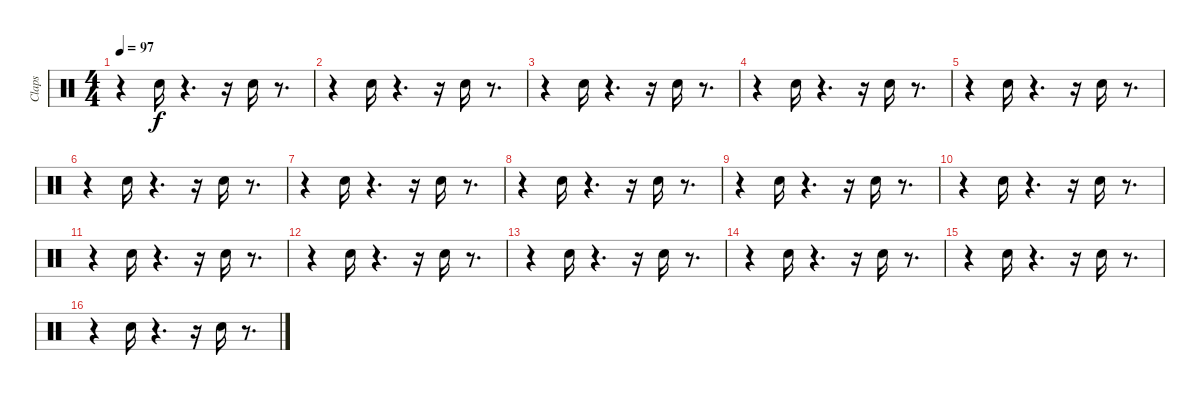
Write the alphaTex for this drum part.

\track ("Claps" "Claps") {instrument percussion}
\staff {score}
\articulation defaults
\ts (4 4)
\tempo 97
\clef neutral
\ks c
r.4{dy f} "Hand Clap (hit)".16 r.4{d} r.16 "Hand Clap (hit)".16 r.8{d} |
r.4 "Hand Clap (hit)".16 r.4{d} r.16 "Hand Clap (hit)".16 r.8{d} |
r.4 "Hand Clap (hit)".16 r.4{d} r.16 "Hand Clap (hit)".16 r.8{d} |
r.4 "Hand Clap (hit)".16 r.4{d} r.16 "Hand Clap (hit)".16 r.8{d} |
r.4 "Hand Clap (hit)".16 r.4{d} r.16 "Hand Clap (hit)".16 r.8{d} |
r.4 "Hand Clap (hit)".16 r.4{d} r.16 "Hand Clap (hit)".16 r.8{d} |
r.4 "Hand Clap (hit)".16 r.4{d} r.16 "Hand Clap (hit)".16 r.8{d} |
r.4 "Hand Clap (hit)".16 r.4{d} r.16 "Hand Clap (hit)".16 r.8{d} |
r.4 "Hand Clap (hit)".16 r.4{d} r.16 "Hand Clap (hit)".16 r.8{d} |
r.4 "Hand Clap (hit)".16 r.4{d} r.16 "Hand Clap (hit)".16 r.8{d} |
r.4 "Hand Clap (hit)".16 r.4{d} r.16 "Hand Clap (hit)".16 r.8{d} |
r.4 "Hand Clap (hit)".16 r.4{d} r.16 "Hand Clap (hit)".16 r.8{d} |
r.4 "Hand Clap (hit)".16 r.4{d} r.16 "Hand Clap (hit)".16 r.8{d} |
r.4 "Hand Clap (hit)".16 r.4{d} r.16 "Hand Clap (hit)".16 r.8{d} |
r.4 "Hand Clap (hit)".16 r.4{d} r.16 "Hand Clap (hit)".16 r.8{d} |
r.4 "Hand Clap (hit)".16 r.4{d} r.16 "Hand Clap (hit)".16 r.8{d}
